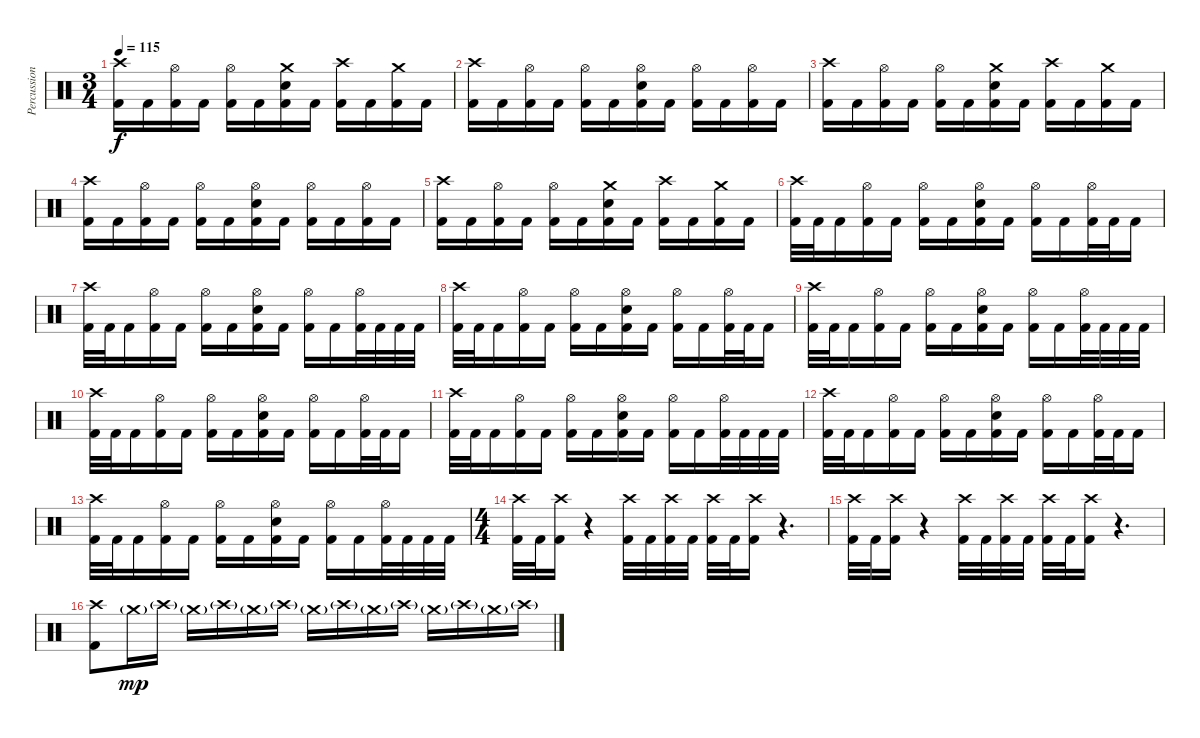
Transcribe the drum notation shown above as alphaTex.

\track ("Percussion" "Percussion") {instrument percussion}
\staff {score}
\articulation defaults
\ts (3 4)
\tempo 115
\clef neutral
\ks c
("Crash high (hit)" "Kick (hit) 2").16{dy f} "Kick (hit) 2".16 ("Hi-Hat (open)" "Kick (hit) 2").16 "Kick (hit) 2".16 ("Hi-Hat (open)" "Kick (hit) 2").16 "Kick (hit) 2".16 ("Crash medium (hit)" "Electric Snare (hit)" "Kick (hit) 2").16 "Kick (hit) 2".16 ("Crash high (hit)" "Kick (hit) 2").16 "Kick (hit) 2".16 ("Crash medium (hit)" "Kick (hit) 2").16 "Kick (hit) 2".16 |
("Crash high (hit)" "Kick (hit) 2").16 "Kick (hit) 2".16 ("Hi-Hat (open)" "Kick (hit) 2").16 "Kick (hit) 2".16 ("Hi-Hat (open)" "Kick (hit) 2").16 "Kick (hit) 2".16 ("Hi-Hat (open)" "Electric Snare (hit)" "Kick (hit) 2").16 "Kick (hit) 2".16 ("Hi-Hat (open)" "Kick (hit) 2").16 "Kick (hit) 2".16 ("Hi-Hat (open)" "Kick (hit) 2").16 "Kick (hit) 2".16 |
("Crash high (hit)" "Kick (hit) 2").16 "Kick (hit) 2".16 ("Hi-Hat (open)" "Kick (hit) 2").16 "Kick (hit) 2".16 ("Hi-Hat (open)" "Kick (hit) 2").16 "Kick (hit) 2".16 ("Crash medium (hit)" "Electric Snare (hit)" "Kick (hit) 2").16 "Kick (hit) 2".16 ("Crash high (hit)" "Kick (hit) 2").16 "Kick (hit) 2".16 ("Crash medium (hit)" "Kick (hit) 2").16 "Kick (hit) 2".16 |
("Crash high (hit)" "Kick (hit) 2").16 "Kick (hit) 2".16 ("Hi-Hat (open)" "Kick (hit) 2").16 "Kick (hit) 2".16 ("Hi-Hat (open)" "Kick (hit) 2").16 "Kick (hit) 2".16 ("Hi-Hat (open)" "Electric Snare (hit)" "Kick (hit) 2").16 "Kick (hit) 2".16 ("Hi-Hat (open)" "Kick (hit) 2").16 "Kick (hit) 2".16 ("Hi-Hat (open)" "Kick (hit) 2").16 "Kick (hit) 2".16 |
("Crash high (hit)" "Kick (hit) 2").16 "Kick (hit) 2".16 ("Hi-Hat (open)" "Kick (hit) 2").16 "Kick (hit) 2".16 ("Hi-Hat (open)" "Kick (hit) 2").16 "Kick (hit) 2".16 ("Crash medium (hit)" "Electric Snare (hit)" "Kick (hit) 2").16 "Kick (hit) 2".16 ("Crash high (hit)" "Kick (hit) 2").16 "Kick (hit) 2".16 ("Crash medium (hit)" "Kick (hit) 2").16 "Kick (hit) 2".16 |
("Crash high (hit)" "Kick (hit) 2").32 "Kick (hit) 2".32 "Kick (hit) 2".16 ("Hi-Hat (open)" "Kick (hit) 2").16 "Kick (hit) 2".16 ("Hi-Hat (open)" "Kick (hit) 2").16 "Kick (hit) 2".16 ("Hi-Hat (open)" "Electric Snare (hit)" "Kick (hit) 2").16 "Kick (hit) 2".16 ("Hi-Hat (open)" "Kick (hit) 2").16 "Kick (hit) 2".16 ("Hi-Hat (open)" "Kick (hit) 2").32 "Kick (hit) 2".32 "Kick (hit) 2".16 |
("Crash high (hit)" "Kick (hit) 2").32 "Kick (hit) 2".32 "Kick (hit) 2".16 ("Hi-Hat (open)" "Kick (hit) 2").16 "Kick (hit) 2".16 ("Hi-Hat (open)" "Kick (hit) 2").16 "Kick (hit) 2".16 ("Hi-Hat (open)" "Electric Snare (hit)" "Kick (hit) 2").16 "Kick (hit) 2".16 ("Hi-Hat (open)" "Kick (hit) 2").16 "Kick (hit) 2".16 ("Hi-Hat (open)" "Kick (hit) 2").32 "Kick (hit) 2".32 "Kick (hit) 2".32 "Kick (hit) 2".32 |
("Crash high (hit)" "Kick (hit) 2").32 "Kick (hit) 2".32 "Kick (hit) 2".16 ("Hi-Hat (open)" "Kick (hit) 2").16 "Kick (hit) 2".16 ("Hi-Hat (open)" "Kick (hit) 2").16 "Kick (hit) 2".16 ("Hi-Hat (open)" "Electric Snare (hit)" "Kick (hit) 2").16 "Kick (hit) 2".16 ("Hi-Hat (open)" "Kick (hit) 2").16 "Kick (hit) 2".16 ("Hi-Hat (open)" "Kick (hit) 2").32 "Kick (hit) 2".32 "Kick (hit) 2".16 |
("Crash high (hit)" "Kick (hit) 2").32 "Kick (hit) 2".32 "Kick (hit) 2".16 ("Hi-Hat (open)" "Kick (hit) 2").16 "Kick (hit) 2".16 ("Hi-Hat (open)" "Kick (hit) 2").16 "Kick (hit) 2".16 ("Hi-Hat (open)" "Electric Snare (hit)" "Kick (hit) 2").16 "Kick (hit) 2".16 ("Hi-Hat (open)" "Kick (hit) 2").16 "Kick (hit) 2".16 ("Hi-Hat (open)" "Kick (hit) 2").32 "Kick (hit) 2".32 "Kick (hit) 2".32 "Kick (hit) 2".32 |
("Crash high (hit)" "Kick (hit) 2").32 "Kick (hit) 2".32 "Kick (hit) 2".16 ("Hi-Hat (open)" "Kick (hit) 2").16 "Kick (hit) 2".16 ("Hi-Hat (open)" "Kick (hit) 2").16 "Kick (hit) 2".16 ("Hi-Hat (open)" "Electric Snare (hit)" "Kick (hit) 2").16 "Kick (hit) 2".16 ("Hi-Hat (open)" "Kick (hit) 2").16 "Kick (hit) 2".16 ("Hi-Hat (open)" "Kick (hit) 2").32 "Kick (hit) 2".32 "Kick (hit) 2".16 |
("Crash high (hit)" "Kick (hit) 2").32 "Kick (hit) 2".32 "Kick (hit) 2".16 ("Hi-Hat (open)" "Kick (hit) 2").16 "Kick (hit) 2".16 ("Hi-Hat (open)" "Kick (hit) 2").16 "Kick (hit) 2".16 ("Hi-Hat (open)" "Electric Snare (hit)" "Kick (hit) 2").16 "Kick (hit) 2".16 ("Hi-Hat (open)" "Kick (hit) 2").16 "Kick (hit) 2".16 ("Hi-Hat (open)" "Kick (hit) 2").32 "Kick (hit) 2".32 "Kick (hit) 2".32 "Kick (hit) 2".32 |
("Crash high (hit)" "Kick (hit) 2").32 "Kick (hit) 2".32 "Kick (hit) 2".16 ("Hi-Hat (open)" "Kick (hit) 2").16 "Kick (hit) 2".16 ("Hi-Hat (open)" "Kick (hit) 2").16 "Kick (hit) 2".16 ("Hi-Hat (open)" "Electric Snare (hit)" "Kick (hit) 2").16 "Kick (hit) 2".16 ("Hi-Hat (open)" "Kick (hit) 2").16 "Kick (hit) 2".16 ("Hi-Hat (open)" "Kick (hit) 2").32 "Kick (hit) 2".32 "Kick (hit) 2".16 |
("Crash high (hit)" "Kick (hit) 2").32 "Kick (hit) 2".32 "Kick (hit) 2".16 ("Hi-Hat (open)" "Kick (hit) 2").16 "Kick (hit) 2".16 ("Hi-Hat (open)" "Kick (hit) 2").16 "Kick (hit) 2".16 ("Hi-Hat (open)" "Electric Snare (hit)" "Kick (hit) 2").16 "Kick (hit) 2".16 ("Hi-Hat (open)" "Kick (hit) 2").16 "Kick (hit) 2".16 ("Hi-Hat (open)" "Kick (hit) 2").32 "Kick (hit) 2".32 "Kick (hit) 2".32 "Kick (hit) 2".32 |
\ts (4 4)
("Crash high (hit)" "Kick (hit) 2").32 "Kick (hit) 2".32 ("Crash high (hit)" "Kick (hit) 2").16 r.4 ("Crash high (hit)" "Kick (hit) 2").32 "Kick (hit) 2".32 ("Crash high (hit)" "Kick (hit) 2").32 "Kick (hit) 2".32 ("Crash high (hit)" "Kick (hit) 2").32 "Kick (hit) 2".32 ("Crash high (hit)" "Kick (hit) 2").16 r.4{d} |
("Crash high (hit)" "Kick (hit) 2").32 "Kick (hit) 2".32 ("Crash high (hit)" "Kick (hit) 2").16 r.4 ("Crash high (hit)" "Kick (hit) 2").32 "Kick (hit) 2".32 ("Crash high (hit)" "Kick (hit) 2").32 "Kick (hit) 2".32 ("Crash high (hit)" "Kick (hit) 2").32 "Kick (hit) 2".32 ("Crash high (hit)" "Kick (hit) 2").16 r.4{d} |
("Crash high (hit)" "Kick (hit) 2").8 "Crash medium (hit)"{g}.16{dy mp} "Crash high (hit)"{g}.16 "Crash medium (hit)"{g}.16 "Crash high (hit)"{g}.16 "Crash medium (hit)"{g}.16 "Crash high (hit)"{g}.16 "Crash medium (hit)"{g}.16 "Crash high (hit)"{g}.16 "Crash medium (hit)"{g}.16 "Crash high (hit)"{g}.16 "Crash medium (hit)"{g}.16 "Crash high (hit)"{g}.16 "Crash medium (hit)"{g}.16 "Crash high (hit)"{g}.16
